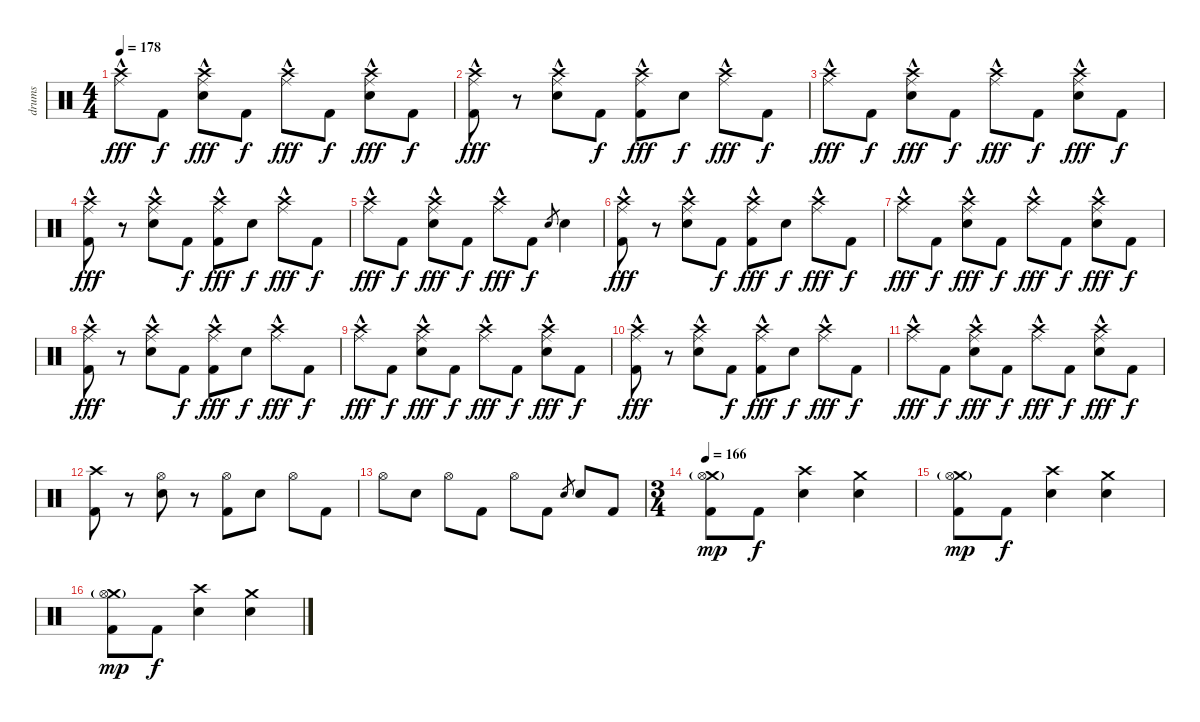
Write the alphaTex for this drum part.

\track ("drums" "drums") {instrument percussion}
\staff {score}
\articulation defaults
\ts (4 4)
\tempo 178
\clef neutral
\ks c
("Ride (middle)" "Crash high (hit)"{hac}).8{dy fff} "Kick (hit) 2".8{dy f} ("Ride (middle)" "Crash high (hit)"{hac} "Snare (hit) 2").8{dy fff} "Kick (hit) 2".8{dy f} ("Ride (middle)" "Crash high (hit)"{hac}).8{dy fff} "Kick (hit) 2".8{dy f} ("Ride (middle)" "Crash high (hit)"{hac} "Snare (hit) 2").8{dy fff} "Kick (hit) 2".8{dy f} |
("Ride (middle)" "Crash high (hit)"{hac} "Kick (hit) 2").8{dy fff} r.8 ("Ride (middle)" "Crash high (hit)"{hac} "Snare (hit) 2").8 "Kick (hit) 2".8{dy f} ("Ride (middle)" "Crash high (hit)"{hac} "Kick (hit) 2").8{dy fff} "Snare (hit) 2".8{dy f} ("Ride (middle)" "Crash high (hit)"{hac}).8{dy fff} "Kick (hit) 2".8{dy f} |
("Ride (middle)" "Crash high (hit)"{hac}).8{dy fff} "Kick (hit) 2".8{dy f} ("Ride (middle)" "Crash high (hit)"{hac} "Snare (hit) 2").8{dy fff} "Kick (hit) 2".8{dy f} ("Ride (middle)" "Crash high (hit)"{hac}).8{dy fff} "Kick (hit) 2".8{dy f} ("Ride (middle)" "Crash high (hit)"{hac} "Snare (hit) 2").8{dy fff} "Kick (hit) 2".8{dy f} |
("Ride (middle)" "Crash high (hit)"{hac} "Kick (hit) 2").8{dy fff} r.8 ("Ride (middle)" "Crash high (hit)"{hac} "Snare (hit) 2").8 "Kick (hit) 2".8{dy f} ("Ride (middle)" "Crash high (hit)"{hac} "Kick (hit) 2").8{dy fff} "Snare (hit) 2".8{dy f} ("Ride (middle)" "Crash high (hit)"{hac}).8{dy fff} "Kick (hit) 2".8{dy f} |
("Ride (middle)" "Crash high (hit)"{hac}).8{dy fff} "Kick (hit) 2".8{dy f} ("Ride (middle)" "Crash high (hit)"{hac} "Snare (hit) 2").8{dy fff} "Kick (hit) 2".8{dy f} ("Ride (middle)" "Crash high (hit)"{hac}).8{dy fff} "Kick (hit) 2".8{dy f} "Snare (hit) 2".8{gr} "Snare (hit) 2".4 |
("Ride (middle)" "Crash high (hit)"{hac} "Kick (hit) 2").8{dy fff} r.8 ("Ride (middle)" "Crash high (hit)"{hac} "Snare (hit) 2").8 "Kick (hit) 2".8{dy f} ("Ride (middle)" "Crash high (hit)"{hac} "Kick (hit) 2").8{dy fff} "Snare (hit) 2".8{dy f} ("Ride (middle)" "Crash high (hit)"{hac}).8{dy fff} "Kick (hit) 2".8{dy f} |
("Ride (middle)" "Crash high (hit)"{hac}).8{dy fff} "Kick (hit) 2".8{dy f} ("Ride (middle)" "Crash high (hit)"{hac} "Snare (hit) 2").8{dy fff} "Kick (hit) 2".8{dy f} ("Ride (middle)" "Crash high (hit)"{hac}).8{dy fff} "Kick (hit) 2".8{dy f} ("Ride (middle)" "Crash high (hit)"{hac} "Snare (hit) 2").8{dy fff} "Kick (hit) 2".8{dy f} |
("Ride (middle)" "Crash high (hit)"{hac} "Kick (hit) 2").8{dy fff} r.8 ("Ride (middle)" "Crash high (hit)"{hac} "Snare (hit) 2").8 "Kick (hit) 2".8{dy f} ("Ride (middle)" "Crash high (hit)"{hac} "Kick (hit) 2").8{dy fff} "Snare (hit) 2".8{dy f} ("Ride (middle)" "Crash high (hit)"{hac}).8{dy fff} "Kick (hit) 2".8{dy f} |
("Ride (middle)" "Crash high (hit)"{hac}).8{dy fff} "Kick (hit) 2".8{dy f} ("Ride (middle)" "Crash high (hit)"{hac} "Snare (hit) 2").8{dy fff} "Kick (hit) 2".8{dy f} ("Ride (middle)" "Crash high (hit)"{hac}).8{dy fff} "Kick (hit) 2".8{dy f} ("Ride (middle)" "Crash high (hit)"{hac} "Snare (hit) 2").8{dy fff} "Kick (hit) 2".8{dy f} |
("Ride (middle)" "Crash high (hit)"{hac} "Kick (hit) 2").8{dy fff} r.8 ("Ride (middle)" "Crash high (hit)"{hac} "Snare (hit) 2").8 "Kick (hit) 2".8{dy f} ("Ride (middle)" "Crash high (hit)"{hac} "Kick (hit) 2").8{dy fff} "Snare (hit) 2".8{dy f} ("Ride (middle)" "Crash high (hit)"{hac}).8{dy fff} "Kick (hit) 2".8{dy f} |
("Ride (middle)" "Crash high (hit)"{hac}).8{dy fff} "Kick (hit) 2".8{dy f} ("Ride (middle)" "Crash high (hit)"{hac} "Snare (hit) 2").8{dy fff} "Kick (hit) 2".8{dy f} ("Ride (middle)" "Crash high (hit)"{hac}).8{dy fff} "Kick (hit) 2".8{dy f} ("Ride (middle)" "Crash high (hit)"{hac} "Snare (hit) 2").8{dy fff} "Kick (hit) 2".8{dy f} |
("Crash high (hit)" "Kick (hit) 2").8 r.8 ("Hi-Hat (open)" "Snare (hit) 2").8 r.8 ("Hi-Hat (open)" "Kick (hit) 2").8 "Snare (hit) 2".8 "Hi-Hat (open)".8 "Kick (hit) 2".8 |
"Hi-Hat (open)".8 "Snare (hit) 2".8 "Hi-Hat (open)".8 "Kick (hit) 2".8 "Hi-Hat (open)".8 "Kick (hit) 2".8 "Snare (hit) 2".8{gr} "Snare (hit) 2".8 "Kick (hit) 2".8 |
\ts (3 4)
\tempo 166
("Crash medium (hit)"{g} "Hi-Hat (open)" "Kick (hit) 2").8{dy mp} "Kick (hit) 2".8{dy f} ("Crash high (hit)" "Snare (hit) 2").4 ("Crash medium (hit)" "Snare (hit) 2").4 |
("Crash medium (hit)"{g} "Hi-Hat (open)" "Kick (hit) 2").8{dy mp} "Kick (hit) 2".8{dy f} ("Crash high (hit)" "Snare (hit) 2").4 ("Crash medium (hit)" "Snare (hit) 2").4 |
("Crash medium (hit)"{g} "Hi-Hat (open)" "Kick (hit) 2").8{dy mp} "Kick (hit) 2".8{dy f} ("Crash high (hit)" "Snare (hit) 2").4 ("Crash medium (hit)" "Snare (hit) 2").4
